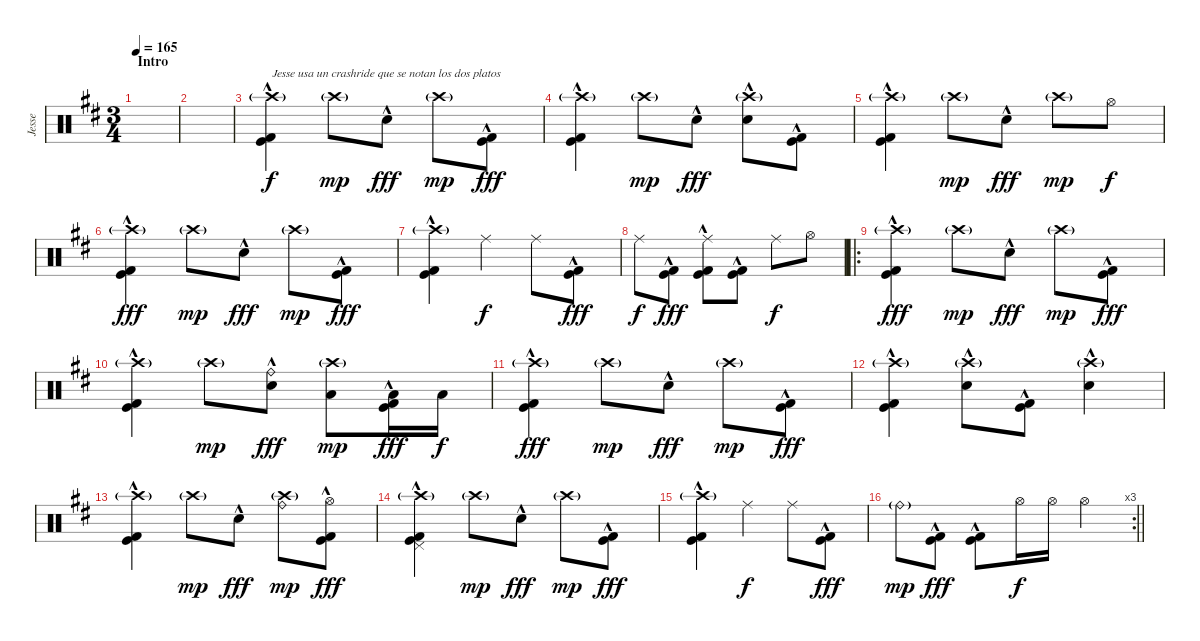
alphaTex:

\track ("Jesse" "Jesse") {instrument percussion}
\staff {score}
\articulation defaults
\ts (3 4)
\section ("" "Intro")
\tempo 165
\clef neutral
\ks d
|
|
("Crash high (hit)"{g} "Kick (hit)"{hac} "Kick (hit) 2"{hac}).4{txt "Jesse usa un crashride que se notan los dos platos"} "Crash high (hit)"{g}.8{dy mp} "Electric Snare (hit)"{hac}.8{dy fff} "Crash high (hit)"{g}.8{dy mp} ("Kick (hit)"{hac} "Kick (hit) 2"{hac}).8{dy fff} |
("Crash high (hit)"{g} "Kick (hit)"{hac} "Kick (hit) 2"{hac}).4 "Crash high (hit)"{g}.8{dy mp} "Electric Snare (hit)"{hac}.8{dy fff} ("Crash high (hit)"{g} "Electric Snare (hit)"{hac}).8 ("Kick (hit)"{hac} "Kick (hit) 2"{hac}).8 |
("Crash high (hit)"{g} "Kick (hit)"{hac} "Kick (hit) 2"{hac}).4 "Crash high (hit)"{g}.8{dy mp} "Electric Snare (hit)"{hac}.8{dy fff} "Crash high (hit)"{g}.8{dy mp} "Hi-Hat (open)".8{dy f} |
("Crash high (hit)"{g} "Kick (hit)"{hac} "Kick (hit) 2"{hac}).4{dy fff} "Crash high (hit)"{g}.8{dy mp} "Electric Snare (hit)"{hac}.8{dy fff} "Crash high (hit)"{g}.8{dy mp} ("Kick (hit)"{hac} "Kick (hit) 2"{hac}).8{dy fff} |
("Crash high (hit)"{g} "Kick (hit)"{hac} "Kick (hit) 2"{hac}).4 "Ride (middle)".4{dy f} "Ride (middle)".8 ("Kick (hit)"{hac} "Kick (hit) 2"{hac}).8{dy fff} |
"Ride (middle)".8{dy f} ("Kick (hit)"{hac} "Kick (hit) 2"{hac}).8{dy fff} ("Ride (middle)" "Kick (hit)"{hac} "Kick (hit) 2"{hac}).8 ("Kick (hit)"{hac} "Kick (hit) 2"{hac}).8 "Ride (middle)".8{dy f} "Hi-Hat (open)".8 |
\ro
("Crash high (hit)"{g} "Kick (hit)"{hac} "Kick (hit) 2"{hac}).4{dy fff} "Crash high (hit)"{g}.8{dy mp} "Electric Snare (hit)"{hac}.8{dy fff} "Crash high (hit)"{g}.8{dy mp} ("Kick (hit)"{hac} "Kick (hit) 2"{hac}).8{dy fff} |
("Crash high (hit)"{g} "Kick (hit)"{hac} "Kick (hit) 2"{hac}).4 "Crash high (hit)"{g}.8{dy mp} ("Ride (bell)" "Electric Snare (hit)"{hac}).8{dy fff} ("Crash high (hit)"{g} "Low Floor Tom (hit)").8{dy mp} ("Low Floor Tom (hit)" "Kick (hit)"{hac} "Kick (hit) 2"{hac}).16{dy fff} "Low Floor Tom (hit)".16{dy f} |
("Crash high (hit)"{g} "Kick (hit)"{hac} "Kick (hit) 2"{hac}).4{dy fff} "Crash high (hit)"{g}.8{dy mp} "Electric Snare (hit)"{hac}.8{dy fff} "Crash high (hit)"{g}.8{dy mp} ("Kick (hit)"{hac} "Kick (hit) 2"{hac}).8{dy fff} |
("Crash high (hit)"{g} "Kick (hit)"{hac} "Kick (hit) 2"{hac}).4 ("Crash high (hit)"{g} "Electric Snare (hit)"{hac}).8 ("Kick (hit)"{hac} "Kick (hit) 2"{hac}).8 ("Crash high (hit)"{g} "Electric Snare (hit)"{hac}).4 |
("Crash high (hit)"{g} "Kick (hit)"{hac} "Kick (hit) 2"{hac}).4 "Crash high (hit)"{g}.8{dy mp} "Electric Snare (hit)"{hac}.8{dy fff} ("Crash high (hit)"{g} "Ride (bell)").8{dy mp} ("Hi-Hat (open)" "Kick (hit)"{hac} "Kick (hit) 2"{hac}).8{dy fff} |
("Crash high (hit)"{g} "Pedal Hi-Hat (hit)" "Kick (hit)"{hac} "Kick (hit) 2"{hac}).4 "Crash high (hit)"{g}.8{dy mp} "Electric Snare (hit)"{hac}.8{dy fff} "Crash high (hit)"{g}.8{dy mp} ("Kick (hit)"{hac} "Kick (hit) 2"{hac}).8{dy fff} |
("Crash high (hit)"{g} "Kick (hit)"{hac} "Kick (hit) 2"{hac}).4 "Ride (middle)".4{dy f} "Ride (middle)".8 ("Kick (hit)"{hac} "Kick (hit) 2"{hac}).8{dy fff} |
\rc 3
\barLineRight lightlight "Ride (bell)"{g}.8{dy mp}
("Kick (hit)"{hac} "Kick (hit) 2"{hac}).8{dy fff} ("Kick (hit)"{hac} "Kick (hit) 2"{hac}).8 "Hi-Hat (open)".16{dy f} "Hi-Hat (open)".16 "Hi-Hat (open)".4
